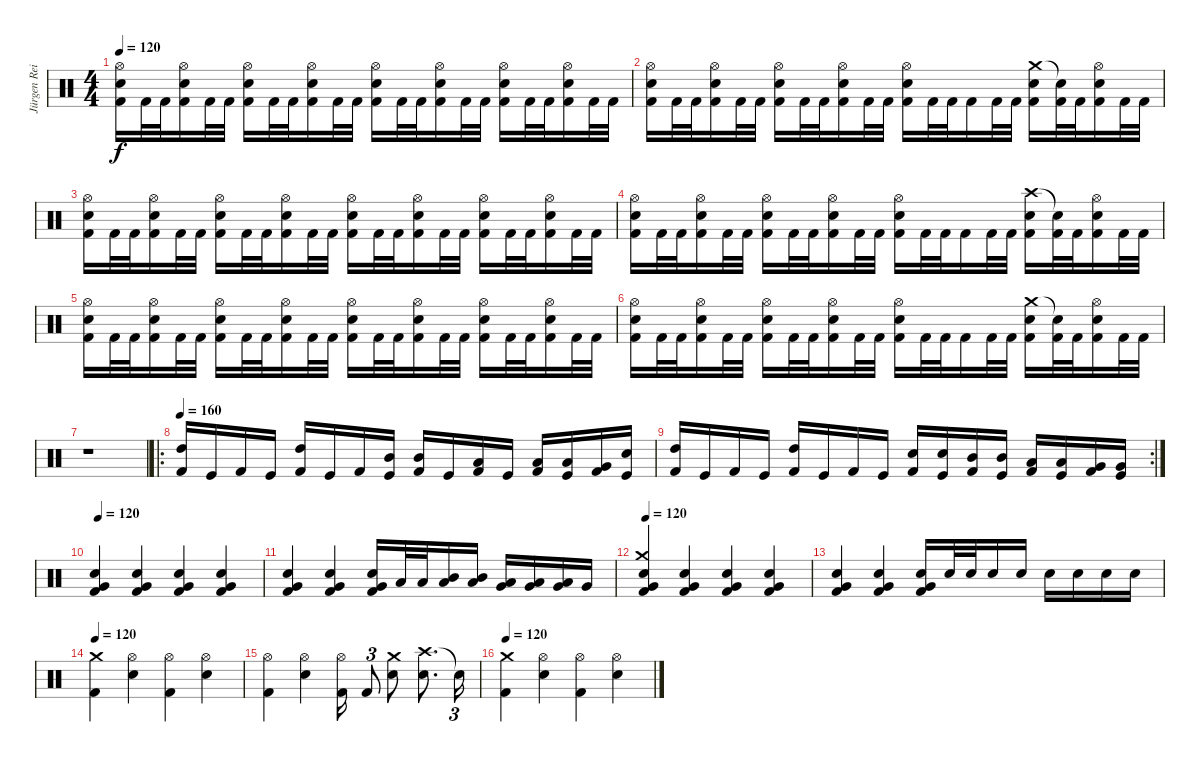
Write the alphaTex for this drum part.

\track ("Jürgen Reil" "Jürgen Rei") {instrument percussion}
\staff {score}
\articulation defaults
\ts (4 4)
\tempo 120
\clef neutral
\ks c
("Hi-Hat (open)" "Electric Snare (hit)" "Kick (hit) 2").16{dy f} "Kick (hit) 2".32 "Kick (hit) 2".32 ("Hi-Hat (open)" "Electric Snare (hit)" "Kick (hit) 2").16 "Kick (hit) 2".32 "Kick (hit) 2".32 ("Hi-Hat (open)" "Electric Snare (hit)" "Kick (hit) 2").16 "Kick (hit) 2".32 "Kick (hit) 2".32 ("Hi-Hat (open)" "Electric Snare (hit)" "Kick (hit) 2").16 "Kick (hit) 2".32 "Kick (hit) 2".32 ("Hi-Hat (open)" "Electric Snare (hit)" "Kick (hit) 2").16 "Kick (hit) 2".32 "Kick (hit) 2".32 ("Hi-Hat (open)" "Electric Snare (hit)" "Kick (hit) 2").16 "Kick (hit) 2".32 "Kick (hit) 2".32 ("Hi-Hat (open)" "Electric Snare (hit)" "Kick (hit) 2").16 "Kick (hit) 2".32 "Kick (hit) 2".32 ("Hi-Hat (open)" "Electric Snare (hit)" "Kick (hit) 2").16 "Kick (hit) 2".32 "Kick (hit) 2".32 |
("Hi-Hat (open)" "Electric Snare (hit)" "Kick (hit) 2").16 "Kick (hit) 2".32 "Kick (hit) 2".32 ("Hi-Hat (open)" "Electric Snare (hit)" "Kick (hit) 2").16 "Kick (hit) 2".32 "Kick (hit) 2".32 ("Hi-Hat (open)" "Electric Snare (hit)" "Kick (hit) 2").16 "Kick (hit) 2".32 "Kick (hit) 2".32 ("Hi-Hat (open)" "Electric Snare (hit)" "Kick (hit) 2").16 "Kick (hit) 2".32 "Kick (hit) 2".32 ("Hi-Hat (open)" "Electric Snare (hit)" "Kick (hit) 2").16 "Kick (hit) 2".32 "Kick (hit) 2".32 "Kick (hit) 2".16 "Kick (hit) 2".32 "Kick (hit) 2".32 ("Crash medium (hit)" "Electric Snare (hit)" "Kick (hit) 2").16 ("Snare (hit)"{t} "Kick (hit) 2").32 "Kick (hit) 2".32 ("Hi-Hat (open)" "Electric Snare (hit)" "Kick (hit) 2").16 "Kick (hit) 2".32 "Kick (hit) 2".32 |
("Hi-Hat (open)" "Electric Snare (hit)" "Kick (hit) 2").16 "Kick (hit) 2".32 "Kick (hit) 2".32 ("Hi-Hat (open)" "Electric Snare (hit)" "Kick (hit) 2").16 "Kick (hit) 2".32 "Kick (hit) 2".32 ("Hi-Hat (open)" "Electric Snare (hit)" "Kick (hit) 2").16 "Kick (hit) 2".32 "Kick (hit) 2".32 ("Hi-Hat (open)" "Electric Snare (hit)" "Kick (hit) 2").16 "Kick (hit) 2".32 "Kick (hit) 2".32 ("Hi-Hat (open)" "Electric Snare (hit)" "Kick (hit) 2").16 "Kick (hit) 2".32 "Kick (hit) 2".32 ("Hi-Hat (open)" "Electric Snare (hit)" "Kick (hit) 2").16 "Kick (hit) 2".32 "Kick (hit) 2".32 ("Hi-Hat (open)" "Electric Snare (hit)" "Kick (hit) 2").16 "Kick (hit) 2".32 "Kick (hit) 2".32 ("Hi-Hat (open)" "Electric Snare (hit)" "Kick (hit) 2").16 "Kick (hit) 2".32 "Kick (hit) 2".32 |
("Hi-Hat (open)" "Electric Snare (hit)" "Kick (hit) 2").16 "Kick (hit) 2".32 "Kick (hit) 2".32 ("Hi-Hat (open)" "Electric Snare (hit)" "Kick (hit) 2").16 "Kick (hit) 2".32 "Kick (hit) 2".32 ("Hi-Hat (open)" "Electric Snare (hit)" "Kick (hit) 2").16 "Kick (hit) 2".32 "Kick (hit) 2".32 ("Hi-Hat (open)" "Electric Snare (hit)" "Kick (hit) 2").16 "Kick (hit) 2".32 "Kick (hit) 2".32 ("Hi-Hat (open)" "Electric Snare (hit)" "Kick (hit) 2").16 "Kick (hit) 2".32 "Kick (hit) 2".32 "Kick (hit) 2".16 "Kick (hit) 2".32 "Kick (hit) 2".32 ("Crash high (hit)" "Electric Snare (hit)" "Kick (hit) 2").16 ("Snare (hit)"{t} "Kick (hit) 2").32 "Kick (hit) 2".32 ("Hi-Hat (open)" "Electric Snare (hit)" "Kick (hit) 2").16 "Kick (hit) 2".32 "Kick (hit) 2".32 |
("Hi-Hat (open)" "Electric Snare (hit)" "Kick (hit) 2").16 "Kick (hit) 2".32 "Kick (hit) 2".32 ("Hi-Hat (open)" "Electric Snare (hit)" "Kick (hit) 2").16 "Kick (hit) 2".32 "Kick (hit) 2".32 ("Hi-Hat (open)" "Electric Snare (hit)" "Kick (hit) 2").16 "Kick (hit) 2".32 "Kick (hit) 2".32 ("Hi-Hat (open)" "Electric Snare (hit)" "Kick (hit) 2").16 "Kick (hit) 2".32 "Kick (hit) 2".32 ("Hi-Hat (open)" "Electric Snare (hit)" "Kick (hit) 2").16 "Kick (hit) 2".32 "Kick (hit) 2".32 ("Hi-Hat (open)" "Electric Snare (hit)" "Kick (hit) 2").16 "Kick (hit) 2".32 "Kick (hit) 2".32 ("Hi-Hat (open)" "Electric Snare (hit)" "Kick (hit) 2").16 "Kick (hit) 2".32 "Kick (hit) 2".32 ("Hi-Hat (open)" "Electric Snare (hit)" "Kick (hit) 2").16 "Kick (hit) 2".32 "Kick (hit) 2".32 |
("Hi-Hat (open)" "Electric Snare (hit)" "Kick (hit) 2").16 "Kick (hit) 2".32 "Kick (hit) 2".32 ("Hi-Hat (open)" "Electric Snare (hit)" "Kick (hit) 2").16 "Kick (hit) 2".32 "Kick (hit) 2".32 ("Hi-Hat (open)" "Electric Snare (hit)" "Kick (hit) 2").16 "Kick (hit) 2".32 "Kick (hit) 2".32 ("Hi-Hat (open)" "Electric Snare (hit)" "Kick (hit) 2").16 "Kick (hit) 2".32 "Kick (hit) 2".32 ("Hi-Hat (open)" "Electric Snare (hit)" "Kick (hit) 2").16 "Kick (hit) 2".32 "Kick (hit) 2".32 "Kick (hit) 2".16 "Kick (hit) 2".32 "Kick (hit) 2".32 ("Crash medium (hit)" "Electric Snare (hit)" "Kick (hit) 2").16 ("Snare (hit)"{t} "Kick (hit) 2").32 "Kick (hit) 2".32 ("Hi-Hat (open)" "Electric Snare (hit)" "Kick (hit) 2").16 "Kick (hit) 2".32 "Kick (hit) 2".32 |
r.1 |
\ro
\tempo 160
("High Tom (hit)" "Kick (hit) 2").16 "Kick (hit)".16 "Kick (hit) 2".16 "Kick (hit)".16 ("High Tom (hit)" "Kick (hit) 2").16 "Kick (hit)".16 "Kick (hit) 2".16 ("Mid Tom (hit)" "Kick (hit)").16 ("Mid Tom (hit)" "Kick (hit) 2").16 "Kick (hit)".16 ("Low Tom (hit)" "Kick (hit) 2").16 "Kick (hit)".16 ("Low Tom (hit)" "Kick (hit) 2").16 ("Low Tom (hit)" "Kick (hit)").16 ("Very Low Tom (hit)" "Kick (hit) 2").16 ("Snare (hit)" "Kick (hit)").16 |
\rc 2
("High Tom (hit)" "Kick (hit) 2").16 "Kick (hit)".16 "Kick (hit) 2".16 "Kick (hit)".16 ("High Tom (hit)" "Kick (hit) 2").16 "Kick (hit)".16 "Kick (hit) 2".16 "Kick (hit)".16 ("Electric Snare (hit)" "Kick (hit) 2").16 ("Electric Snare (hit)" "Kick (hit)").16 ("Mid Tom (hit)" "Kick (hit) 2").16 ("Mid Tom (hit)" "Kick (hit)").16 ("Low Tom (hit)" "Kick (hit) 2").16 ("Low Tom (hit)" "Kick (hit)").16 ("Very Low Tom (hit)" "Kick (hit) 2").16 ("Very Low Tom (hit)" "Kick (hit)").16 |
\tempo 120
("Very Low Tom (hit)" "Electric Snare (hit)" "Kick (hit) 2").4 ("Very Low Tom (hit)" "Electric Snare (hit)" "Kick (hit) 2").4 ("Very Low Tom (hit)" "Electric Snare (hit)" "Kick (hit) 2").4 ("Very Low Tom (hit)" "Electric Snare (hit)" "Kick (hit) 2").4 |
("Very Low Tom (hit)" "Electric Snare (hit)" "Kick (hit) 2").4 ("Very Low Tom (hit)" "Electric Snare (hit)" "Kick (hit) 2").4 ("Very Low Tom (hit)" "Electric Snare (hit)" "Kick (hit) 2").16 "Low Tom (hit)".32 "Low Tom (hit)".32 ("Mid Tom (hit)" "Low Tom (hit)").16 ("Mid Tom (hit)" "Low Tom (hit)").16 ("Low Tom (hit)" "Very Low Tom (hit)").16 ("Low Tom (hit)" "Very Low Tom (hit)").16 ("Low Tom (hit)" "Very Low Tom (hit)").16 "Very Low Tom (hit)".16 |
\tempo 120
("Crash medium (hit)" "Very Low Tom (hit)" "Electric Snare (hit)" "Kick (hit) 2").4 ("Very Low Tom (hit)" "Electric Snare (hit)" "Kick (hit) 2").4 ("Very Low Tom (hit)" "Electric Snare (hit)" "Kick (hit) 2").4 ("Very Low Tom (hit)" "Electric Snare (hit)" "Kick (hit) 2").4 |
("Very Low Tom (hit)" "Electric Snare (hit)" "Kick (hit) 2").4 ("Very Low Tom (hit)" "Electric Snare (hit)" "Kick (hit) 2").4 ("Very Low Tom (hit)" "Electric Snare (hit)" "Kick (hit) 2").16 "Electric Snare (hit)".32 "Electric Snare (hit)".32 "Electric Snare (hit)".16 "Electric Snare (hit)".16 "Electric Snare (hit)".16 "Electric Snare (hit)".16 "Electric Snare (hit)".16 "Electric Snare (hit)".16 |
\tempo 120
("Crash medium (hit)" "Kick (hit) 2").4 ("Hi-Hat (open)" "Electric Snare (hit)").4 ("Hi-Hat (open)" "Kick (hit) 2").4 ("Hi-Hat (open)" "Electric Snare (hit)").4 |
("Hi-Hat (open)" "Kick (hit) 2").4 ("Hi-Hat (open)" "Electric Snare (hit)").4 ("Hi-Hat (open)" "Kick (hit) 2").16 "Kick (hit) 2".8{tu (3 2)} ("Crash medium (hit)" "Electric Snare (hit)").8 ("Crash high (hit)" "Electric Snare (hit)").8{d} "Snare (hit)"{t}.16{tu (3 2)} |
\tempo 120
("Crash medium (hit)" "Kick (hit) 2").4 ("Hi-Hat (open)" "Electric Snare (hit)").4 ("Hi-Hat (open)" "Kick (hit) 2").4 ("Hi-Hat (open)" "Electric Snare (hit)").4
